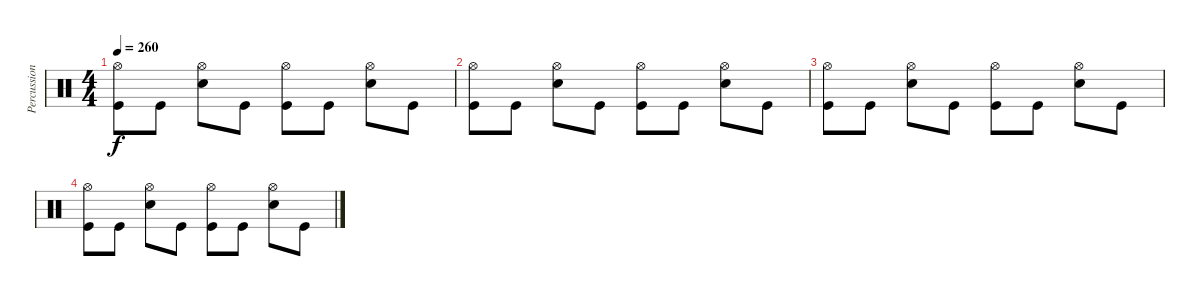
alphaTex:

\track ("Percussion" "Percussion") {instrument percussion}
\staff {score}
\articulation defaults
\ts (4 4)
\tempo 260
\clef neutral
\ks c
("Hi-Hat (open)" "Kick (hit)").8{dy f} "Kick (hit)".8 ("Hi-Hat (open)" "Snare (hit) 2").8 "Kick (hit)".8 ("Hi-Hat (open)" "Kick (hit)").8 "Kick (hit)".8 ("Hi-Hat (open)" "Snare (hit) 2").8 "Kick (hit)".8 |
("Hi-Hat (open)" "Kick (hit)").8 "Kick (hit)".8 ("Hi-Hat (open)" "Snare (hit) 2").8 "Kick (hit)".8 ("Hi-Hat (open)" "Kick (hit)").8 "Kick (hit)".8 ("Hi-Hat (open)" "Snare (hit) 2").8 "Kick (hit)".8 |
("Hi-Hat (open)" "Kick (hit)").8 "Kick (hit)".8 ("Hi-Hat (open)" "Snare (hit) 2").8 "Kick (hit)".8 ("Hi-Hat (open)" "Kick (hit)").8 "Kick (hit)".8 ("Hi-Hat (open)" "Snare (hit) 2").8 "Kick (hit)".8 |
("Hi-Hat (open)" "Kick (hit)").8 "Kick (hit)".8 ("Hi-Hat (open)" "Snare (hit) 2").8 "Kick (hit)".8 ("Hi-Hat (open)" "Kick (hit)").8 "Kick (hit)".8 ("Hi-Hat (open)" "Snare (hit) 2").8 "Kick (hit)".8
